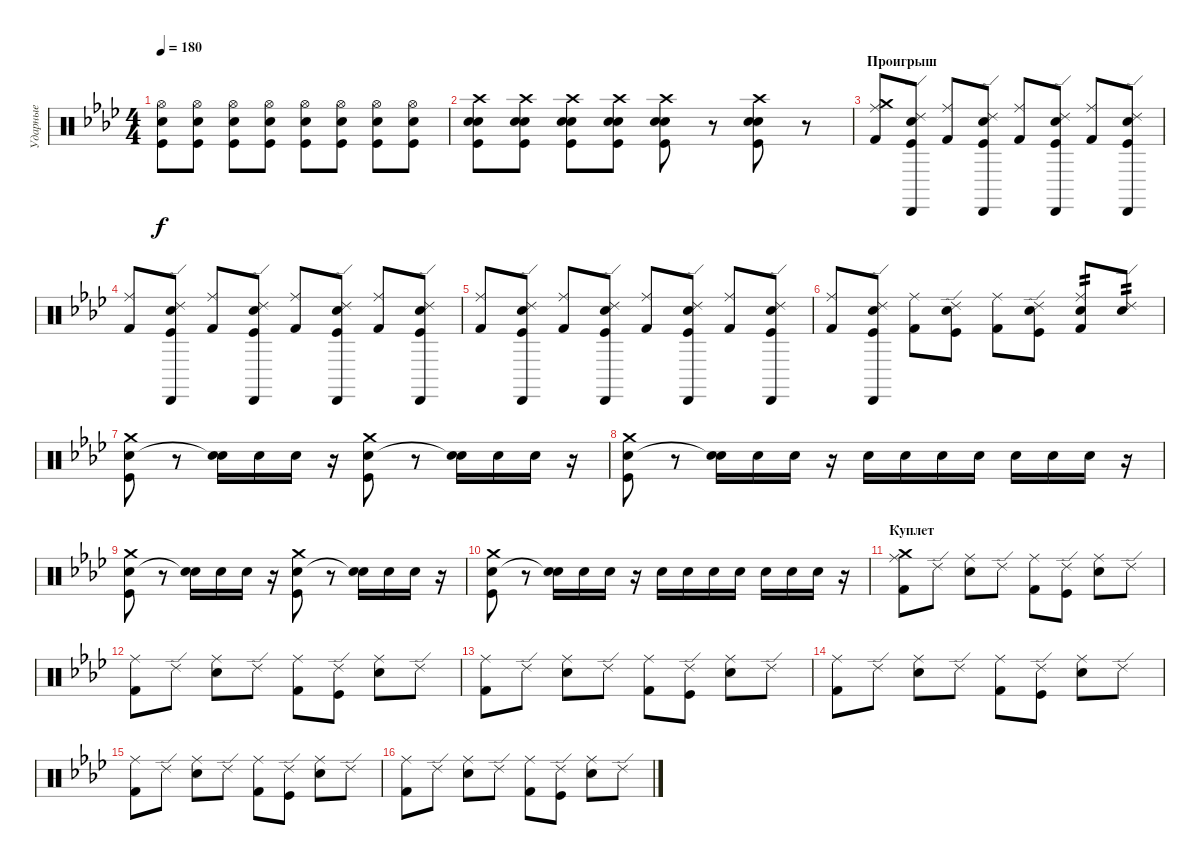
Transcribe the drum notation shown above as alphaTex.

\track ("Ударные" "Ударные") {instrument percussion}
\staff {score}
\articulation defaults
\ts (4 4)
\tempo 180
\clef neutral
\ks ab
("Electric Snare (hit)" "Kick (hit)" "Hi-Hat (open)").8{dy f} ("Kick (hit)" "Electric Snare (hit)" "Hi-Hat (open)").8 ("Kick (hit)" "Electric Snare (hit)" "Hi-Hat (open)").8 ("Kick (hit)" "Electric Snare (hit)" "Hi-Hat (open)").8 ("Kick (hit)" "Electric Snare (hit)" "Hi-Hat (open)").8 ("Kick (hit)" "Electric Snare (hit)" "Hi-Hat (open)").8 ("Kick (hit)" "Electric Snare (hit)" "Hi-Hat (open)").8 ("Electric Snare (hit)" "Kick (hit)" "Hi-Hat (open)").8 |
("Kick (hit)" "Snare (hit) 2" "Snare (hit) 2" "Crash high (hit)").8 ("Kick (hit)" "Snare (hit) 2" "Snare (hit) 2" "Crash high (hit)").8 ("Kick (hit)" "Snare (hit) 2" "Snare (hit) 2" "Crash high (hit)").8 ("Kick (hit)" "Snare (hit) 2" "Snare (hit) 2" "Crash high (hit)").8 ("Kick (hit)" "Snare (hit) 2" "Snare (hit) 2" "Crash high (hit)").8 r.8 ("Kick (hit)" "Snare (hit) 2" "Snare (hit) 2" "Crash high (hit)").8 r.8 |
\section ("" "Проигрыш")
("Ride (middle)" "Kick (hit) 2" "Crash medium (hit)").8 ("Ride (edge) 2" "Cabasa (hit)" "Electric Snare (hit)" "Kick (hit)").8 ("Ride (middle)" "Kick (hit) 2").8 ("Ride (edge) 2" "Cabasa (hit)" "Electric Snare (hit)" "Kick (hit)").8 ("Ride (middle)" "Kick (hit) 2").8 ("Ride (edge) 2" "Cabasa (hit)" "Electric Snare (hit)" "Kick (hit)").8 ("Ride (middle)" "Kick (hit) 2").8 ("Ride (edge) 2" "Cabasa (hit)" "Electric Snare (hit)" "Kick (hit)").8 |
("Ride (middle)" "Kick (hit) 2").8 ("Ride (edge) 2" "Cabasa (hit)" "Electric Snare (hit)" "Kick (hit)").8 ("Ride (middle)" "Kick (hit) 2").8 ("Ride (edge) 2" "Cabasa (hit)" "Electric Snare (hit)" "Kick (hit)").8 ("Ride (middle)" "Kick (hit) 2").8 ("Ride (edge) 2" "Cabasa (hit)" "Electric Snare (hit)" "Kick (hit)").8 ("Ride (middle)" "Kick (hit) 2").8 ("Ride (edge) 2" "Cabasa (hit)" "Electric Snare (hit)" "Kick (hit)").8 |
("Ride (middle)" "Kick (hit) 2").8 ("Ride (edge) 2" "Cabasa (hit)" "Electric Snare (hit)" "Kick (hit)").8 ("Ride (middle)" "Kick (hit) 2").8 ("Ride (edge) 2" "Cabasa (hit)" "Electric Snare (hit)" "Kick (hit)").8 ("Ride (middle)" "Kick (hit) 2").8 ("Ride (edge) 2" "Cabasa (hit)" "Electric Snare (hit)" "Kick (hit)").8 ("Ride (middle)" "Kick (hit) 2").8 ("Ride (edge) 2" "Cabasa (hit)" "Electric Snare (hit)" "Kick (hit)").8 |
("Ride (middle)" "Kick (hit) 2").8 ("Ride (edge) 2" "Cabasa (hit)" "Electric Snare (hit)" "Kick (hit)").8 ("Ride (middle)" "Kick (hit) 2").8 ("Ride (edge) 2" "Electric Snare (hit)" "Kick (hit)").8 ("Ride (middle)" "Kick (hit) 2").8 ("Ride (edge) 2" "Electric Snare (hit)" "Kick (hit)").8 ("Ride (middle)" "Kick (hit) 2" "Electric Snare (hit)").8{tp 2} ("Ride (edge) 2" "Electric Snare (hit)").8{tp 2} |
("Kick (hit)" "Electric Snare (hit)" "Crash medium (hit)").8 r.8 ("Electric Snare (hit)" "Snare (hit)"{t}).16 "Electric Snare (hit)".16 "Electric Snare (hit)".16 r.16 ("Kick (hit)" "Electric Snare (hit)" "Crash medium (hit)").8 r.8 ("Electric Snare (hit)" "Snare (hit)"{t}).16 "Electric Snare (hit)".16 "Electric Snare (hit)".16 r.16 |
("Kick (hit)" "Electric Snare (hit)" "Crash medium (hit)").8 r.8 ("Electric Snare (hit)" "Snare (hit)"{t}).16 "Electric Snare (hit)".16 "Electric Snare (hit)".16 r.16 "Electric Snare (hit)".16 "Electric Snare (hit)".16 "Electric Snare (hit)".16 "Electric Snare (hit)".16 "Electric Snare (hit)".16 "Electric Snare (hit)".16 "Electric Snare (hit)".16 r.16 |
("Kick (hit)" "Electric Snare (hit)" "Crash medium (hit)").8 r.8 ("Electric Snare (hit)" "Snare (hit)"{t}).16 "Electric Snare (hit)".16 "Electric Snare (hit)".16 r.16 ("Kick (hit)" "Electric Snare (hit)" "Crash medium (hit)").8 r.8 ("Electric Snare (hit)" "Snare (hit)"{t}).16 "Electric Snare (hit)".16 "Electric Snare (hit)".16 r.16 |
("Kick (hit)" "Electric Snare (hit)" "Crash medium (hit)").8 r.8 ("Electric Snare (hit)" "Snare (hit)"{t}).16 "Electric Snare (hit)".16 "Electric Snare (hit)".16 r.16 "Electric Snare (hit)".16 "Electric Snare (hit)".16 "Electric Snare (hit)".16 "Electric Snare (hit)".16 "Electric Snare (hit)".16 "Electric Snare (hit)".16 "Electric Snare (hit)".16 r.16 |
\section ("" "Куплет")
("Crash medium (hit)" "Ride (middle)" "Kick (hit) 2").8 "Ride (edge) 2".8 ("Ride (middle)" "Electric Snare (hit)").8 "Ride (edge) 2".8 ("Ride (middle)" "Kick (hit) 2").8 ("Ride (edge) 2" "Kick (hit)").8 ("Ride (middle)" "Electric Snare (hit)").8 "Ride (edge) 2".8 |
("Ride (middle)" "Kick (hit) 2").8 "Ride (edge) 2".8 ("Ride (middle)" "Electric Snare (hit)").8 "Ride (edge) 2".8 ("Ride (middle)" "Kick (hit) 2").8 ("Ride (edge) 2" "Kick (hit)").8 ("Ride (middle)" "Electric Snare (hit)").8 "Ride (edge) 2".8 |
("Ride (middle)" "Kick (hit) 2").8 "Ride (edge) 2".8 ("Ride (middle)" "Electric Snare (hit)").8 "Ride (edge) 2".8 ("Ride (middle)" "Kick (hit) 2").8 ("Ride (edge) 2" "Kick (hit)").8 ("Ride (middle)" "Electric Snare (hit)").8 "Ride (edge) 2".8 |
("Ride (middle)" "Kick (hit) 2").8 "Ride (edge) 2".8 ("Ride (middle)" "Electric Snare (hit)").8 "Ride (edge) 2".8 ("Ride (middle)" "Kick (hit) 2").8 ("Ride (edge) 2" "Kick (hit)").8 ("Ride (middle)" "Electric Snare (hit)").8 "Ride (edge) 2".8 |
("Ride (middle)" "Kick (hit) 2").8 "Ride (edge) 2".8 ("Ride (middle)" "Electric Snare (hit)").8 "Ride (edge) 2".8 ("Ride (middle)" "Kick (hit) 2").8 ("Ride (edge) 2" "Kick (hit)").8 ("Ride (middle)" "Electric Snare (hit)").8 "Ride (edge) 2".8 |
("Ride (middle)" "Kick (hit) 2").8 "Ride (edge) 2".8 ("Ride (middle)" "Electric Snare (hit)").8 "Ride (edge) 2".8 ("Ride (middle)" "Kick (hit) 2").8 ("Ride (edge) 2" "Kick (hit)").8 ("Ride (middle)" "Electric Snare (hit)").8 "Ride (edge) 2".8
